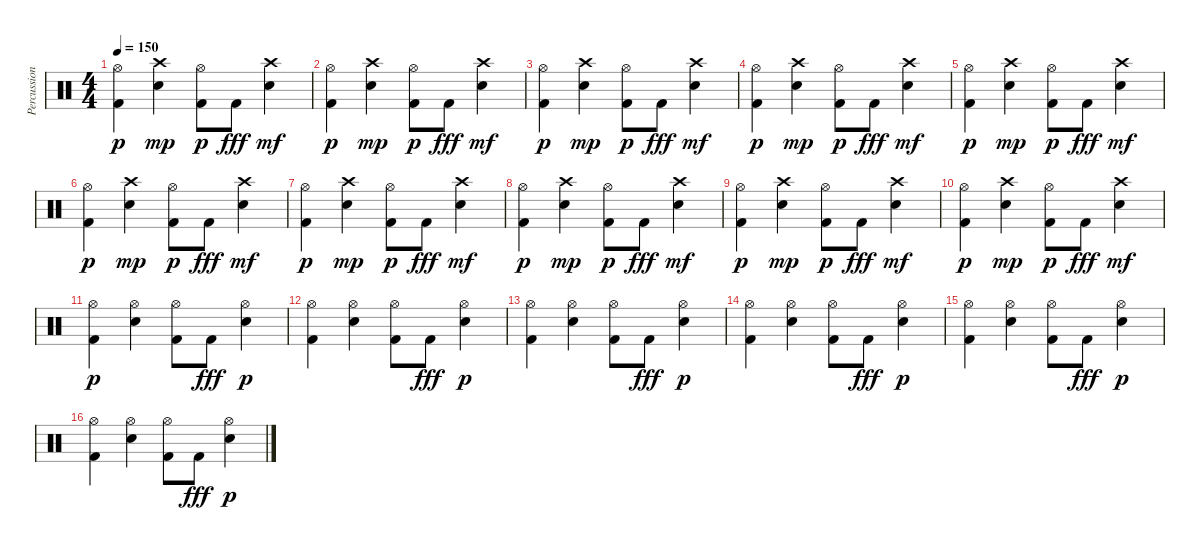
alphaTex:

\track ("Percussions" "Percussion") {instrument percussion}
\staff {score}
\articulation defaults
\ts (4 4)
\tempo 150
\clef neutral
\ks c
("Kick (hit) 2" "Hi-Hat (open)").4{dy p} ("Snare (hit) 2" "Crash high (hit)").4{dy mp} ("Kick (hit) 2" "Hi-Hat (open)").8{dy p} "Kick (hit) 2".8{dy fff} ("Snare (hit) 2" "Crash high (hit)").4{dy mf} |
("Kick (hit) 2" "Hi-Hat (open)").4{dy p} ("Snare (hit) 2" "Crash high (hit)").4{dy mp} ("Kick (hit) 2" "Hi-Hat (open)").8{dy p} "Kick (hit) 2".8{dy fff} ("Snare (hit) 2" "Crash high (hit)").4{dy mf} |
("Kick (hit) 2" "Hi-Hat (open)").4{dy p} ("Snare (hit) 2" "Crash high (hit)").4{dy mp} ("Kick (hit) 2" "Hi-Hat (open)").8{dy p} "Kick (hit) 2".8{dy fff} ("Snare (hit) 2" "Crash high (hit)").4{dy mf} |
("Kick (hit) 2" "Hi-Hat (open)").4{dy p} ("Snare (hit) 2" "Crash high (hit)").4{dy mp} ("Kick (hit) 2" "Hi-Hat (open)").8{dy p} "Kick (hit) 2".8{dy fff} ("Snare (hit) 2" "Crash high (hit)").4{dy mf} |
("Kick (hit) 2" "Hi-Hat (open)").4{dy p} ("Snare (hit) 2" "Crash high (hit)").4{dy mp} ("Kick (hit) 2" "Hi-Hat (open)").8{dy p} "Kick (hit) 2".8{dy fff} ("Snare (hit) 2" "Crash high (hit)").4{dy mf} |
("Kick (hit) 2" "Hi-Hat (open)").4{dy p} ("Snare (hit) 2" "Crash high (hit)").4{dy mp} ("Kick (hit) 2" "Hi-Hat (open)").8{dy p} "Kick (hit) 2".8{dy fff} ("Snare (hit) 2" "Crash high (hit)").4{dy mf} |
("Kick (hit) 2" "Hi-Hat (open)").4{dy p} ("Snare (hit) 2" "Crash high (hit)").4{dy mp} ("Kick (hit) 2" "Hi-Hat (open)").8{dy p} "Kick (hit) 2".8{dy fff} ("Snare (hit) 2" "Crash high (hit)").4{dy mf} |
("Kick (hit) 2" "Hi-Hat (open)").4{dy p} ("Snare (hit) 2" "Crash high (hit)").4{dy mp} ("Kick (hit) 2" "Hi-Hat (open)").8{dy p} "Kick (hit) 2".8{dy fff} ("Snare (hit) 2" "Crash high (hit)").4{dy mf} |
("Kick (hit) 2" "Hi-Hat (open)").4{dy p} ("Snare (hit) 2" "Crash high (hit)").4{dy mp} ("Kick (hit) 2" "Hi-Hat (open)").8{dy p} "Kick (hit) 2".8{dy fff} ("Snare (hit) 2" "Crash high (hit)").4{dy mf} |
("Kick (hit) 2" "Hi-Hat (open)").4{dy p} ("Snare (hit) 2" "Crash high (hit)").4{dy mp} ("Kick (hit) 2" "Hi-Hat (open)").8{dy p} "Kick (hit) 2".8{dy fff} ("Snare (hit) 2" "Crash high (hit)").4{dy mf} |
("Kick (hit) 2" "Hi-Hat (open)").4{dy p} ("Snare (hit) 2" "Hi-Hat (open)").4 ("Kick (hit) 2" "Hi-Hat (open)").8 "Kick (hit) 2".8{dy fff} ("Snare (hit) 2" "Hi-Hat (open)").4{dy p} |
("Kick (hit) 2" "Hi-Hat (open)").4 ("Snare (hit) 2" "Hi-Hat (open)").4 ("Kick (hit) 2" "Hi-Hat (open)").8 "Kick (hit) 2".8{dy fff} ("Snare (hit) 2" "Hi-Hat (open)").4{dy p} |
("Kick (hit) 2" "Hi-Hat (open)").4 ("Snare (hit) 2" "Hi-Hat (open)").4 ("Kick (hit) 2" "Hi-Hat (open)").8 "Kick (hit) 2".8{dy fff} ("Snare (hit) 2" "Hi-Hat (open)").4{dy p} |
("Kick (hit) 2" "Hi-Hat (open)").4 ("Snare (hit) 2" "Hi-Hat (open)").4 ("Kick (hit) 2" "Hi-Hat (open)").8 "Kick (hit) 2".8{dy fff} ("Snare (hit) 2" "Hi-Hat (open)").4{dy p} |
("Kick (hit) 2" "Hi-Hat (open)").4 ("Snare (hit) 2" "Hi-Hat (open)").4 ("Kick (hit) 2" "Hi-Hat (open)").8 "Kick (hit) 2".8{dy fff} ("Snare (hit) 2" "Hi-Hat (open)").4{dy p} |
("Kick (hit) 2" "Hi-Hat (open)").4 ("Snare (hit) 2" "Hi-Hat (open)").4 ("Kick (hit) 2" "Hi-Hat (open)").8 "Kick (hit) 2".8{dy fff} ("Snare (hit) 2" "Hi-Hat (open)").4{dy p}
